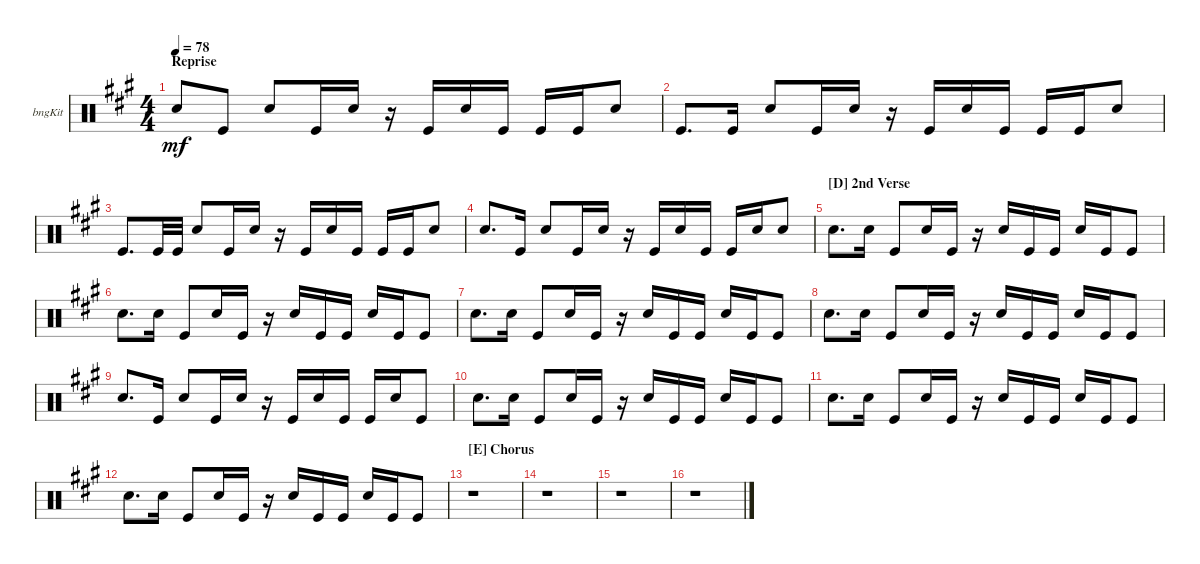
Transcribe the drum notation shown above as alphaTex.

\defaultSystemsLayout 4
\bracketExtendMode groupsimilarinstruments
\firstSystemTrackNameOrientation horizontal
\otherSystemsTrackNameOrientation horizontal
\track ("Bongos" "bngKit") {instrument percussion}
\staff {score}
\articulation defaults
\ts (4 4)
\section ("" "Reprise")
\tempo 78
\clef neutral
\ks a "Snare (hit) 2".8{dy mf} "Kick (hit)".8 "Snare (hit) 2".8 "Kick (hit)".16 "Snare (hit) 2".16
r.16 "Kick (hit)".16 "Snare (hit) 2".16 "Kick (hit)".16 "Kick (hit)".16 "Kick (hit)".16 "Snare (hit) 2".8 |
"Kick (hit)".8{d} "Kick (hit)".16 "Snare (hit) 2".8 "Kick (hit)".16 "Snare (hit) 2".16 r.16 "Kick (hit)".16 "Snare (hit) 2".16 "Kick (hit)".16 "Kick (hit)".16 "Kick (hit)".16 "Snare (hit) 2".8 |
"Kick (hit)".8{d} "Kick (hit)".32 "Kick (hit)".32 "Snare (hit) 2".8 "Kick (hit)".16 "Snare (hit) 2".16 r.16 "Kick (hit)".16 "Snare (hit) 2".16 "Kick (hit)".16 "Kick (hit)".16 "Kick (hit)".16 "Snare (hit) 2".8 |
"Snare (hit) 2".8{d} "Kick (hit)".16 "Snare (hit) 2".8 "Kick (hit)".16 "Snare (hit) 2".16 r.16 "Kick (hit)".16 "Snare (hit) 2".16 "Kick (hit)".16 "Kick (hit)".16 "Snare (hit) 2".16 "Snare (hit) 2".8 |
\section ("D" "2nd Verse")
"Snare (hit) 2".8{d} "Snare (hit) 2".16 "Kick (hit)".8 "Snare (hit) 2".16 "Kick (hit)".16 r.16 "Snare (hit) 2".16 "Kick (hit)".16 "Kick (hit)".16 "Snare (hit) 2".16 "Kick (hit)".16 "Kick (hit)".8 |
"Snare (hit) 2".8{d} "Snare (hit) 2".16 "Kick (hit)".8 "Snare (hit) 2".16 "Kick (hit)".16 r.16 "Snare (hit) 2".16 "Kick (hit)".16 "Kick (hit)".16 "Snare (hit) 2".16 "Kick (hit)".16 "Kick (hit)".8 |
"Snare (hit) 2".8{d} "Snare (hit) 2".16 "Kick (hit)".8 "Snare (hit) 2".16 "Kick (hit)".16 r.16 "Snare (hit) 2".16 "Kick (hit)".16 "Kick (hit)".16 "Snare (hit) 2".16 "Kick (hit)".16 "Kick (hit)".8 |
"Snare (hit) 2".8{d} "Snare (hit) 2".16 "Kick (hit)".8 "Snare (hit) 2".16 "Kick (hit)".16 r.16 "Snare (hit) 2".16 "Kick (hit)".16 "Kick (hit)".16 "Snare (hit) 2".16 "Kick (hit)".16 "Kick (hit)".8 |
"Snare (hit) 2".8{d} "Kick (hit)".16 "Snare (hit) 2".8 "Kick (hit)".16 "Snare (hit) 2".16 r.16 "Kick (hit)".16 "Snare (hit) 2".16 "Kick (hit)".16 "Kick (hit)".16 "Snare (hit) 2".16 "Kick (hit)".8 |
"Snare (hit) 2".8{d} "Snare (hit) 2".16 "Kick (hit)".8 "Snare (hit) 2".16 "Kick (hit)".16 r.16 "Snare (hit) 2".16 "Kick (hit)".16 "Kick (hit)".16 "Snare (hit) 2".16 "Kick (hit)".16 "Kick (hit)".8 |
"Snare (hit) 2".8{d} "Snare (hit) 2".16 "Kick (hit)".8 "Snare (hit) 2".16 "Kick (hit)".16 r.16 "Snare (hit) 2".16 "Kick (hit)".16 "Kick (hit)".16 "Snare (hit) 2".16 "Kick (hit)".16 "Kick (hit)".8 |
"Snare (hit) 2".8{d} "Snare (hit) 2".16 "Kick (hit)".8 "Snare (hit) 2".16 "Kick (hit)".16 r.16 "Snare (hit) 2".16 "Kick (hit)".16 "Kick (hit)".16 "Snare (hit) 2".16 "Kick (hit)".16 "Kick (hit)".8 |
\section ("E" "Chorus")
r.1 |
r.1 |
r.1 |
r.1
